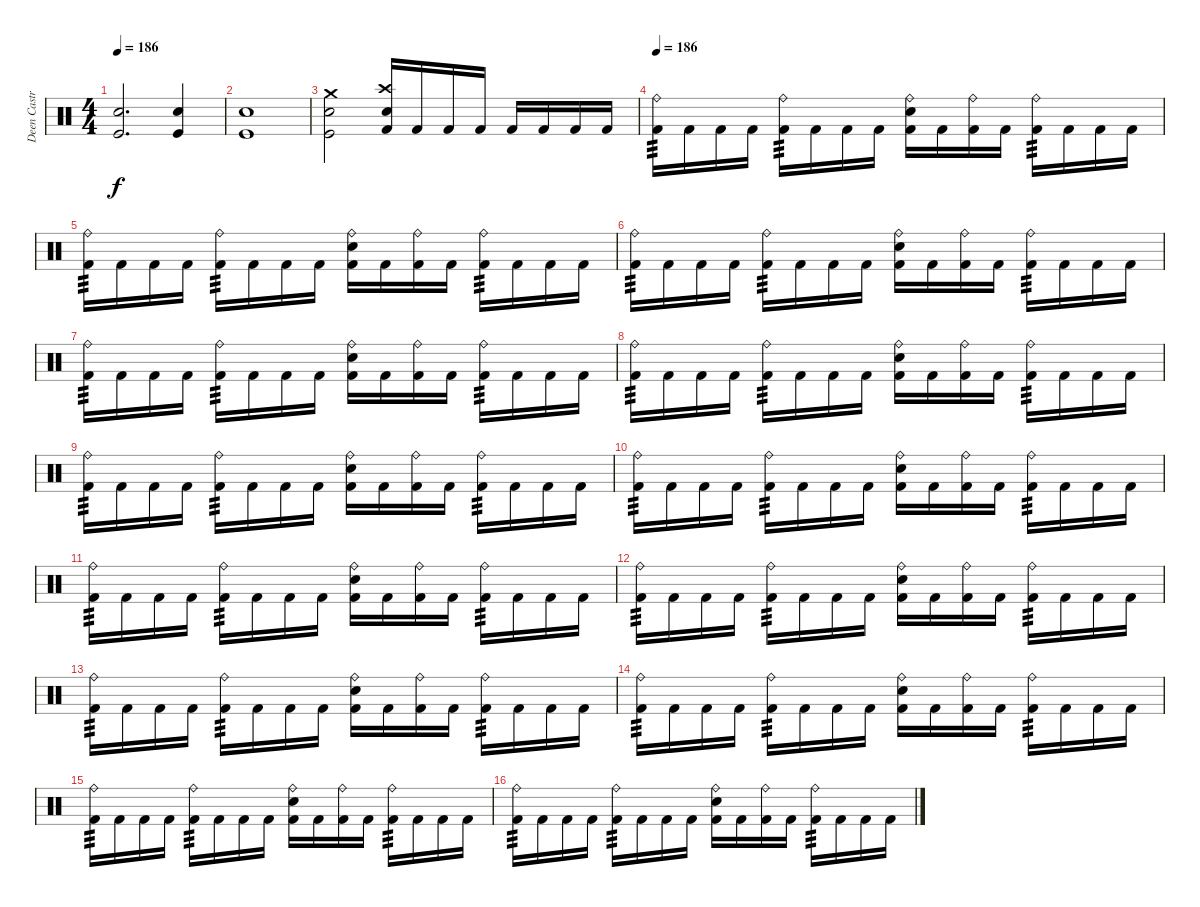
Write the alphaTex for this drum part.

\track ("Deen Castronovo" "Deen Castr") {instrument percussion}
\staff {score}
\articulation defaults
\ts (4 4)
\tempo 186
\clef neutral
\ks c
("Snare (hit) 2" "Kick (hit)").2{d dy f} ("Snare (hit) 2" "Kick (hit)").4 |
("Snare (hit) 2" "Kick (hit)").1 |
("Crash medium (hit)" "Snare (hit) 2" "Kick (hit)").2 ("Crash high (hit)" "Snare (hit) 2" "Kick (hit) 2").16 "Kick (hit) 2".16 "Kick (hit) 2".16 "Kick (hit) 2".16 "Kick (hit) 2".16 "Kick (hit) 2".16 "Kick (hit) 2".16 "Kick (hit) 2".16 |
\tempo 186
("Ride (bell)" "Kick (hit) 2").16{txt "" tp 3} "Kick (hit) 2".16 "Kick (hit) 2".16 "Kick (hit) 2".16 ("Ride (bell)" "Kick (hit) 2").16{tp 3} "Kick (hit) 2".16 "Kick (hit) 2".16 "Kick (hit) 2".16 ("Ride (bell)" "Snare (hit) 2" "Kick (hit) 2").16 "Kick (hit) 2".16 ("Ride (bell)" "Kick (hit) 2").16 "Kick (hit) 2".16 ("Ride (bell)" "Kick (hit) 2").16{tp 3} "Kick (hit) 2".16 "Kick (hit) 2".16 "Kick (hit) 2".16 |
("Ride (bell)" "Kick (hit) 2").16{tp 3} "Kick (hit) 2".16 "Kick (hit) 2".16 "Kick (hit) 2".16 ("Ride (bell)" "Kick (hit) 2").16{tp 3} "Kick (hit) 2".16 "Kick (hit) 2".16 "Kick (hit) 2".16 ("Ride (bell)" "Snare (hit) 2" "Kick (hit) 2").16 "Kick (hit) 2".16 ("Ride (bell)" "Kick (hit) 2").16 "Kick (hit) 2".16 ("Ride (bell)" "Kick (hit) 2").16{tp 3} "Kick (hit) 2".16 "Kick (hit) 2".16 "Kick (hit) 2".16 |
("Ride (bell)" "Kick (hit) 2").16{tp 3} "Kick (hit) 2".16 "Kick (hit) 2".16 "Kick (hit) 2".16 ("Ride (bell)" "Kick (hit) 2").16{tp 3} "Kick (hit) 2".16 "Kick (hit) 2".16 "Kick (hit) 2".16 ("Ride (bell)" "Snare (hit) 2" "Kick (hit) 2").16 "Kick (hit) 2".16 ("Ride (bell)" "Kick (hit) 2").16 "Kick (hit) 2".16 ("Ride (bell)" "Kick (hit) 2").16{tp 3} "Kick (hit) 2".16 "Kick (hit) 2".16 "Kick (hit) 2".16 |
("Ride (bell)" "Kick (hit) 2").16{tp 3} "Kick (hit) 2".16 "Kick (hit) 2".16 "Kick (hit) 2".16 ("Ride (bell)" "Kick (hit) 2").16{tp 3} "Kick (hit) 2".16 "Kick (hit) 2".16 "Kick (hit) 2".16 ("Ride (bell)" "Snare (hit) 2" "Kick (hit) 2").16 "Kick (hit) 2".16 ("Ride (bell)" "Kick (hit) 2").16 "Kick (hit) 2".16 ("Ride (bell)" "Kick (hit) 2").16{tp 3} "Kick (hit) 2".16 "Kick (hit) 2".16 "Kick (hit) 2".16 |
("Ride (bell)" "Kick (hit) 2").16{tp 3} "Kick (hit) 2".16 "Kick (hit) 2".16 "Kick (hit) 2".16 ("Ride (bell)" "Kick (hit) 2").16{tp 3} "Kick (hit) 2".16 "Kick (hit) 2".16 "Kick (hit) 2".16 ("Ride (bell)" "Snare (hit) 2" "Kick (hit) 2").16 "Kick (hit) 2".16 ("Ride (bell)" "Kick (hit) 2").16 "Kick (hit) 2".16 ("Ride (bell)" "Kick (hit) 2").16{tp 3} "Kick (hit) 2".16 "Kick (hit) 2".16 "Kick (hit) 2".16 |
("Ride (bell)" "Kick (hit) 2").16{tp 3} "Kick (hit) 2".16 "Kick (hit) 2".16 "Kick (hit) 2".16 ("Ride (bell)" "Kick (hit) 2").16{tp 3} "Kick (hit) 2".16 "Kick (hit) 2".16 "Kick (hit) 2".16 ("Ride (bell)" "Snare (hit) 2" "Kick (hit) 2").16 "Kick (hit) 2".16 ("Ride (bell)" "Kick (hit) 2").16 "Kick (hit) 2".16 ("Ride (bell)" "Kick (hit) 2").16{tp 3} "Kick (hit) 2".16 "Kick (hit) 2".16 "Kick (hit) 2".16 |
("Ride (bell)" "Kick (hit) 2").16{tp 3} "Kick (hit) 2".16 "Kick (hit) 2".16 "Kick (hit) 2".16 ("Ride (bell)" "Kick (hit) 2").16{tp 3} "Kick (hit) 2".16 "Kick (hit) 2".16 "Kick (hit) 2".16 ("Ride (bell)" "Snare (hit) 2" "Kick (hit) 2").16 "Kick (hit) 2".16 ("Ride (bell)" "Kick (hit) 2").16 "Kick (hit) 2".16 ("Ride (bell)" "Kick (hit) 2").16{tp 3} "Kick (hit) 2".16 "Kick (hit) 2".16 "Kick (hit) 2".16 |
("Ride (bell)" "Kick (hit) 2").16{tp 3} "Kick (hit) 2".16 "Kick (hit) 2".16 "Kick (hit) 2".16 ("Ride (bell)" "Kick (hit) 2").16{tp 3} "Kick (hit) 2".16 "Kick (hit) 2".16 "Kick (hit) 2".16 ("Ride (bell)" "Snare (hit) 2" "Kick (hit) 2").16 "Kick (hit) 2".16 ("Ride (bell)" "Kick (hit) 2").16 "Kick (hit) 2".16 ("Ride (bell)" "Kick (hit) 2").16{tp 3} "Kick (hit) 2".16 "Kick (hit) 2".16 "Kick (hit) 2".16 |
("Ride (bell)" "Kick (hit) 2").16{tp 3} "Kick (hit) 2".16 "Kick (hit) 2".16 "Kick (hit) 2".16 ("Ride (bell)" "Kick (hit) 2").16{tp 3} "Kick (hit) 2".16 "Kick (hit) 2".16 "Kick (hit) 2".16 ("Ride (bell)" "Snare (hit) 2" "Kick (hit) 2").16 "Kick (hit) 2".16 ("Ride (bell)" "Kick (hit) 2").16 "Kick (hit) 2".16 ("Ride (bell)" "Kick (hit) 2").16{tp 3} "Kick (hit) 2".16 "Kick (hit) 2".16 "Kick (hit) 2".16 |
("Ride (bell)" "Kick (hit) 2").16{tp 3} "Kick (hit) 2".16 "Kick (hit) 2".16 "Kick (hit) 2".16 ("Ride (bell)" "Kick (hit) 2").16{tp 3} "Kick (hit) 2".16 "Kick (hit) 2".16 "Kick (hit) 2".16 ("Ride (bell)" "Snare (hit) 2" "Kick (hit) 2").16 "Kick (hit) 2".16 ("Ride (bell)" "Kick (hit) 2").16 "Kick (hit) 2".16 ("Ride (bell)" "Kick (hit) 2").16{tp 3} "Kick (hit) 2".16 "Kick (hit) 2".16 "Kick (hit) 2".16 |
("Ride (bell)" "Kick (hit) 2").16{tp 3} "Kick (hit) 2".16 "Kick (hit) 2".16 "Kick (hit) 2".16 ("Ride (bell)" "Kick (hit) 2").16{tp 3} "Kick (hit) 2".16 "Kick (hit) 2".16 "Kick (hit) 2".16 ("Ride (bell)" "Snare (hit) 2" "Kick (hit) 2").16 "Kick (hit) 2".16 ("Ride (bell)" "Kick (hit) 2").16 "Kick (hit) 2".16 ("Ride (bell)" "Kick (hit) 2").16{tp 3} "Kick (hit) 2".16 "Kick (hit) 2".16 "Kick (hit) 2".16 |
("Ride (bell)" "Kick (hit) 2").16{tp 3} "Kick (hit) 2".16 "Kick (hit) 2".16 "Kick (hit) 2".16 ("Ride (bell)" "Kick (hit) 2").16{tp 3} "Kick (hit) 2".16 "Kick (hit) 2".16 "Kick (hit) 2".16 ("Ride (bell)" "Snare (hit) 2" "Kick (hit) 2").16 "Kick (hit) 2".16 ("Ride (bell)" "Kick (hit) 2").16 "Kick (hit) 2".16 ("Ride (bell)" "Kick (hit) 2").16{tp 3} "Kick (hit) 2".16 "Kick (hit) 2".16 "Kick (hit) 2".16 |
("Ride (bell)" "Kick (hit) 2").16{tp 3} "Kick (hit) 2".16 "Kick (hit) 2".16 "Kick (hit) 2".16 ("Ride (bell)" "Kick (hit) 2").16{tp 3} "Kick (hit) 2".16 "Kick (hit) 2".16 "Kick (hit) 2".16 ("Ride (bell)" "Snare (hit) 2" "Kick (hit) 2").16 "Kick (hit) 2".16 ("Ride (bell)" "Kick (hit) 2").16 "Kick (hit) 2".16 ("Ride (bell)" "Kick (hit) 2").16{tp 3} "Kick (hit) 2".16 "Kick (hit) 2".16 "Kick (hit) 2".16
